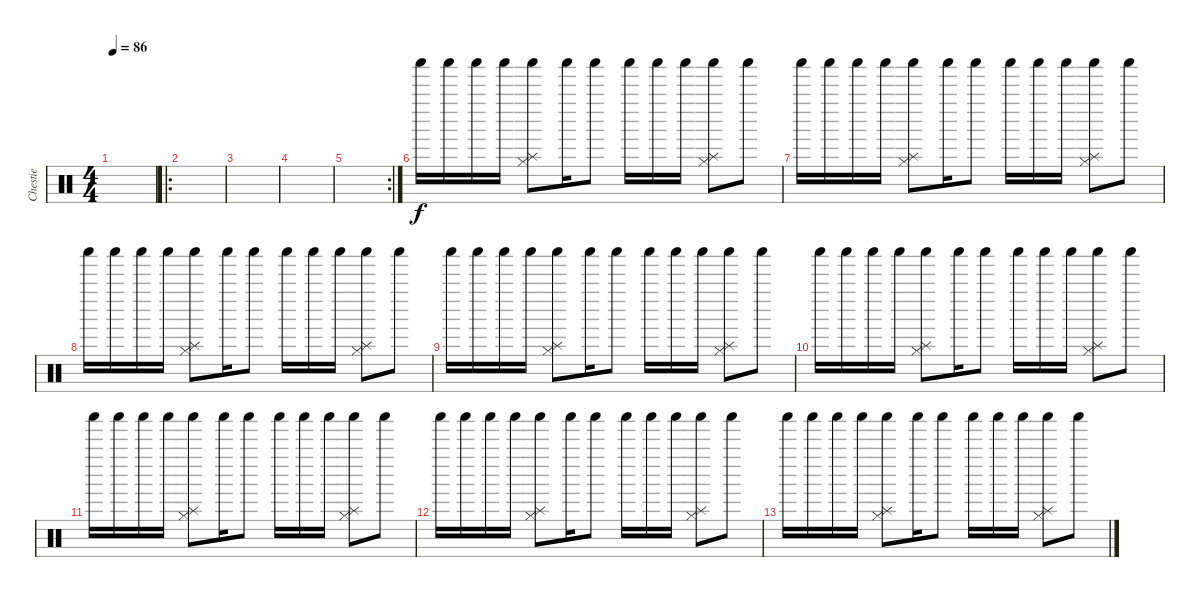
\track ("Chestie" "Chestie") {instrument percussion}
\staff {score}
\articulation defaults
\ts (4 4)
\tempo 86
\clef neutral
\ks c
|
\ro
|
|
|
\rc 2
|
"Shaker (hit)".16{volume 16} "Shaker (hit)".16 "Shaker (hit)".16 "Shaker (hit)".16 ("Shaker (hit)" "Hi-Hat (closed)" "Splash (hit)").8 "Shaker (hit)".16 "Shaker (hit)".8 "Shaker (hit)".16 "Shaker (hit)".16 "Shaker (hit)".16 ("Shaker (hit)" "Hi-Hat (closed)" "Splash (hit)").8 "Shaker (hit)".8 |
"Shaker (hit)".16{volume 16} "Shaker (hit)".16 "Shaker (hit)".16 "Shaker (hit)".16 ("Shaker (hit)" "Hi-Hat (closed)" "Splash (hit)").8 "Shaker (hit)".16 "Shaker (hit)".8 "Shaker (hit)".16 "Shaker (hit)".16 "Shaker (hit)".16 ("Shaker (hit)" "Hi-Hat (closed)" "Splash (hit)").8 "Shaker (hit)".8 |
"Shaker (hit)".16 "Shaker (hit)".16 "Shaker (hit)".16 "Shaker (hit)".16 ("Shaker (hit)" "Hi-Hat (closed)" "Splash (hit)").8 "Shaker (hit)".16 "Shaker (hit)".8 "Shaker (hit)".16 "Shaker (hit)".16 "Shaker (hit)".16 ("Shaker (hit)" "Hi-Hat (closed)" "Splash (hit)").8 "Shaker (hit)".8 |
"Shaker (hit)".16 "Shaker (hit)".16 "Shaker (hit)".16 "Shaker (hit)".16 ("Shaker (hit)" "Hi-Hat (closed)" "Splash (hit)").8 "Shaker (hit)".16 "Shaker (hit)".8 "Shaker (hit)".16 "Shaker (hit)".16 "Shaker (hit)".16 ("Shaker (hit)" "Hi-Hat (closed)" "Splash (hit)").8 "Shaker (hit)".8 |
"Shaker (hit)".16{volume 16} "Shaker (hit)".16 "Shaker (hit)".16 "Shaker (hit)".16 ("Shaker (hit)" "Hi-Hat (closed)" "Splash (hit)").8 "Shaker (hit)".16 "Shaker (hit)".8 "Shaker (hit)".16 "Shaker (hit)".16 "Shaker (hit)".16 ("Shaker (hit)" "Hi-Hat (closed)" "Splash (hit)").8 "Shaker (hit)".8 |
"Shaker (hit)".16{volume 16} "Shaker (hit)".16 "Shaker (hit)".16 "Shaker (hit)".16 ("Shaker (hit)" "Hi-Hat (closed)" "Splash (hit)").8 "Shaker (hit)".16 "Shaker (hit)".8 "Shaker (hit)".16 "Shaker (hit)".16 "Shaker (hit)".16 ("Shaker (hit)" "Hi-Hat (closed)" "Splash (hit)").8 "Shaker (hit)".8 |
"Shaker (hit)".16 "Shaker (hit)".16 "Shaker (hit)".16 "Shaker (hit)".16 ("Shaker (hit)" "Hi-Hat (closed)" "Splash (hit)").8 "Shaker (hit)".16 "Shaker (hit)".8 "Shaker (hit)".16 "Shaker (hit)".16 "Shaker (hit)".16 ("Shaker (hit)" "Hi-Hat (closed)" "Splash (hit)").8 "Shaker (hit)".8 |
"Shaker (hit)".16 "Shaker (hit)".16 "Shaker (hit)".16 "Shaker (hit)".16 ("Shaker (hit)" "Hi-Hat (closed)" "Splash (hit)").8 "Shaker (hit)".16 "Shaker (hit)".8 "Shaker (hit)".16 "Shaker (hit)".16 "Shaker (hit)".16 ("Shaker (hit)" "Hi-Hat (closed)" "Splash (hit)").8 "Shaker (hit)".8
